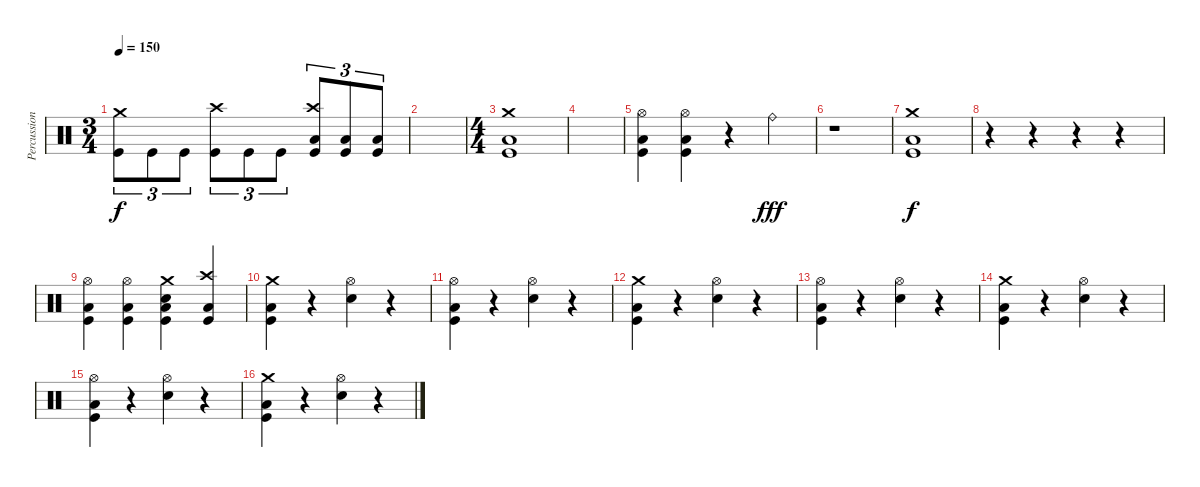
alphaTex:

\track ("Percussions" "Percussion") {instrument percussion}
\staff {score}
\articulation defaults
\ts (3 4)
\tempo 150
\clef neutral
\ks c
("Crash medium (hit)" "Kick (hit)").8{tu (3 2) dy f} "Kick (hit)".8{tu (3 2)} "Kick (hit)".8{tu (3 2)} ("Crash high (hit)" "Kick (hit)").8{tu (3 2)} "Kick (hit)".8{tu (3 2)} "Kick (hit)".8{tu (3 2)} ("Crash high (hit)" "Low Tom (hit)" "Kick (hit)").8{tu (3 2)} ("Low Tom (hit)" "Kick (hit)").8{tu (3 2)} ("Low Tom (hit)" "Kick (hit)").8{tu (3 2)} |
|
\ts (4 4)
("Crash medium (hit)" "Low Floor Tom (hit)" "Kick (hit)").1 |
|
("Hi-Hat (open)" "Low Floor Tom (hit)" "Kick (hit)").4 ("Hi-Hat (open)" "Low Floor Tom (hit)" "Kick (hit)").4 r.4 "Ride (bell)".4{dy fff} |
r.1 |
("Crash medium (hit)" "Low Floor Tom (hit)" "Kick (hit)").1{dy f} |
r.4 r.4 r.4 r.4 |
("Hi-Hat (open)" "Low Floor Tom (hit)" "Kick (hit)").4 ("Hi-Hat (open)" "Low Floor Tom (hit)" "Kick (hit)").4 ("Crash medium (hit)" "Snare (hit) 2" "Low Floor Tom (hit)" "Kick (hit)").4 ("Crash high (hit)" "Low Floor Tom (hit)" "Kick (hit)").4 |
("Crash medium (hit)" "Low Floor Tom (hit)" "Kick (hit)").4 r.4 ("Hi-Hat (open)" "Snare (hit) 2").4 r.4 |
("Hi-Hat (open)" "Low Floor Tom (hit)" "Kick (hit)").4 r.4 ("Hi-Hat (open)" "Snare (hit) 2").4 r.4 |
("Crash medium (hit)" "Low Floor Tom (hit)"{tr (45 16)} "Kick (hit)").4 r.4 ("Hi-Hat (open)" "Snare (hit) 2").4 r.4 |
("Hi-Hat (open)" "Low Floor Tom (hit)" "Kick (hit)").4 r.4 ("Hi-Hat (open)" "Snare (hit) 2").4 r.4 |
("Crash medium (hit)" "Low Floor Tom (hit)" "Kick (hit)").4 r.4 ("Hi-Hat (open)" "Snare (hit) 2").4 r.4 |
("Hi-Hat (open)" "Low Floor Tom (hit)" "Kick (hit)").4 r.4 ("Hi-Hat (open)" "Snare (hit) 2").4 r.4 |
("Crash medium (hit)" "Low Floor Tom (hit)" "Kick (hit)").4 r.4 ("Hi-Hat (open)" "Snare (hit) 2").4 r.4
